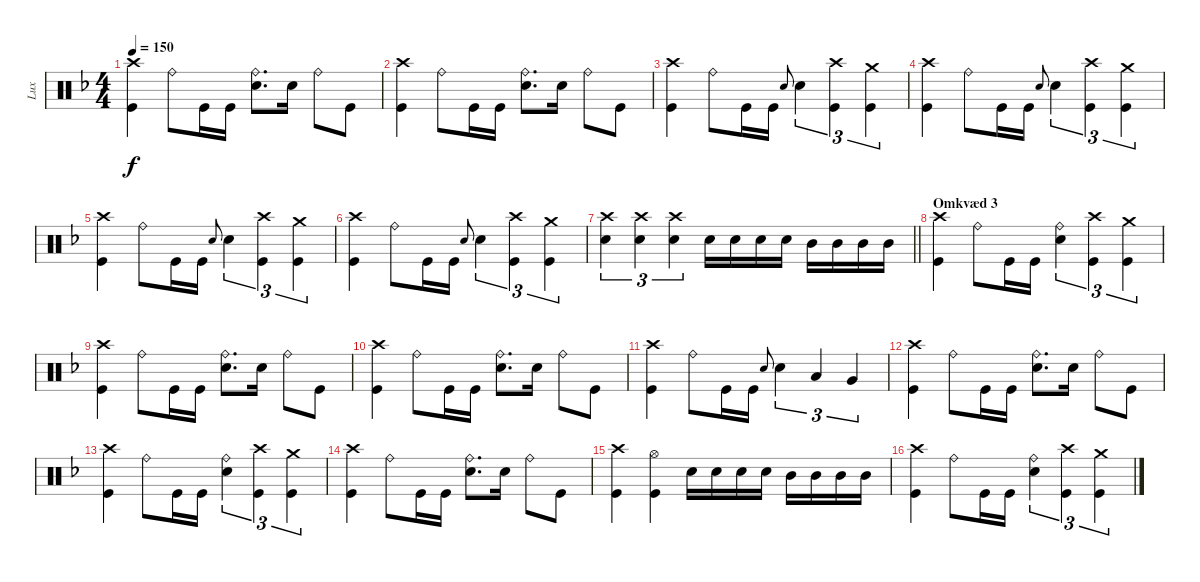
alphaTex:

\track ("Lux" "Lux") {instrument percussion}
\staff {score}
\articulation defaults
\ts (4 4)
\tempo 150
\clef neutral
\ks dminor
("Crash high (hit)" "Kick (hit)").4{dy f} "Ride (bell)".8 "Kick (hit)".16 "Kick (hit)".16 ("Ride (bell)" "Snare (hit) 2").8{d} "Snare (hit) 2".16 "Ride (bell)".8 "Kick (hit)".8 |
("Crash high (hit)" "Kick (hit)").4 "Ride (bell)".8 "Kick (hit)".16 "Kick (hit)".16 ("Ride (bell)" "Snare (hit) 2").8{d} "Snare (hit) 2".16 "Ride (bell)".8 "Kick (hit)".8 |
("Crash high (hit)" "Kick (hit)").4 "Ride (bell)".8 "Kick (hit)".16 "Kick (hit)".16 "Snare (hit) 2".8{gr onbeat} "Snare (hit) 2".4{tu (3 2)} ("Crash high (hit)" "Kick (hit)").4{tu (3 2)} ("Crash medium (hit)" "Kick (hit)").4{tu (3 2)} |
("Crash high (hit)" "Kick (hit)").4 "Ride (bell)".8 "Kick (hit)".16 "Kick (hit)".16 "Snare (hit) 2".8{gr onbeat} "Snare (hit) 2".4{tu (3 2)} ("Crash high (hit)" "Kick (hit)").4{tu (3 2)} ("Crash medium (hit)" "Kick (hit)").4{tu (3 2)} |
("Crash high (hit)" "Kick (hit)").4 "Ride (bell)".8 "Kick (hit)".16 "Kick (hit)".16 "Snare (hit) 2".8{gr onbeat} "Snare (hit) 2".4{tu (3 2)} ("Crash high (hit)" "Kick (hit)").4{tu (3 2)} ("Crash medium (hit)" "Kick (hit)").4{tu (3 2)} |
("Crash high (hit)" "Kick (hit)").4 "Ride (bell)".8 "Kick (hit)".16 "Kick (hit)".16 "Snare (hit) 2".8{gr onbeat} "Snare (hit) 2".4{tu (3 2)} ("Crash high (hit)" "Kick (hit)").4{tu (3 2)} ("Crash medium (hit)" "Kick (hit)").4{tu (3 2)} |
\barLineRight lightlight
("Crash high (hit)" "Snare (hit) 2").4{tu (3 2)} ("Crash high (hit)" "Snare (hit) 2").4{tu (3 2)} ("Crash high (hit)" "Snare (hit) 2").4{tu (3 2)} "Snare (hit) 2".16 "Snare (hit) 2".16 "Snare (hit) 2".16 "Snare (hit) 2".16 "Mid Tom (hit)".16 "Mid Tom (hit)".16 "Mid Tom (hit)".16 "Mid Tom (hit)".16 |
\section ("" "Omkvæd 3")
("Crash high (hit)" "Kick (hit)").4 "Ride (bell)".8 "Kick (hit)".16 "Kick (hit)".16 ("Ride (bell)" "Snare (hit) 2").4{tu (3 2)} ("Crash high (hit)" "Kick (hit)").4{tu (3 2)} ("Crash medium (hit)" "Kick (hit)").4{tu (3 2)} |
("Crash high (hit)" "Kick (hit)").4 "Ride (bell)".8 "Kick (hit)".16 "Kick (hit)".16 ("Ride (bell)" "Snare (hit) 2").8{d} "Snare (hit) 2".16 "Ride (bell)".8 "Kick (hit)".8 |
("Crash high (hit)" "Kick (hit)").4 "Ride (bell)".8 "Kick (hit)".16 "Kick (hit)".16 ("Ride (bell)" "Snare (hit) 2").8{d} "Snare (hit) 2".16 "Ride (bell)".8 "Kick (hit)".8 |
("Crash high (hit)" "Kick (hit)").4 "Ride (bell)".8 "Kick (hit)".16 "Kick (hit)".16 "Snare (hit) 2".8{gr onbeat} "Snare (hit) 2".4{tu (3 2)} "Low Tom (hit)".4{tu (3 2)} "Very Low Tom (hit)".4{tu (3 2)} |
("Crash high (hit)" "Kick (hit)").4 "Ride (bell)".8 "Kick (hit)".16 "Kick (hit)".16 ("Ride (bell)" "Snare (hit) 2").8{d} "Snare (hit) 2".16 "Ride (bell)".8 "Kick (hit)".8 |
("Crash high (hit)" "Kick (hit)").4 "Ride (bell)".8 "Kick (hit)".16 "Kick (hit)".16 ("Ride (bell)" "Snare (hit) 2").4{tu (3 2)} ("Crash high (hit)" "Kick (hit)").4{tu (3 2)} ("Crash medium (hit)" "Kick (hit)").4{tu (3 2)} |
("Crash high (hit)" "Kick (hit)").4 "Ride (bell)".8 "Kick (hit)".16 "Kick (hit)".16 ("Ride (bell)" "Snare (hit) 2").8{d} "Snare (hit) 2".16 "Ride (bell)".8 "Kick (hit)".8 |
("Crash high (hit)" "Kick (hit)").4 ("Hi-Hat (open)" "Kick (hit)").4 "Snare (hit) 2".16 "Snare (hit) 2".16 "Snare (hit) 2".16 "Snare (hit) 2".16 "Mid Tom (hit)".16 "Mid Tom (hit)".16 "Mid Tom (hit)".16 "Mid Tom (hit)".16 |
("Crash high (hit)" "Kick (hit)").4 "Ride (bell)".8 "Kick (hit)".16 "Kick (hit)".16 ("Ride (bell)" "Snare (hit) 2").4{tu (3 2)} ("Crash high (hit)" "Kick (hit)").4{tu (3 2)} ("Crash medium (hit)" "Kick (hit)").4{tu (3 2)}
